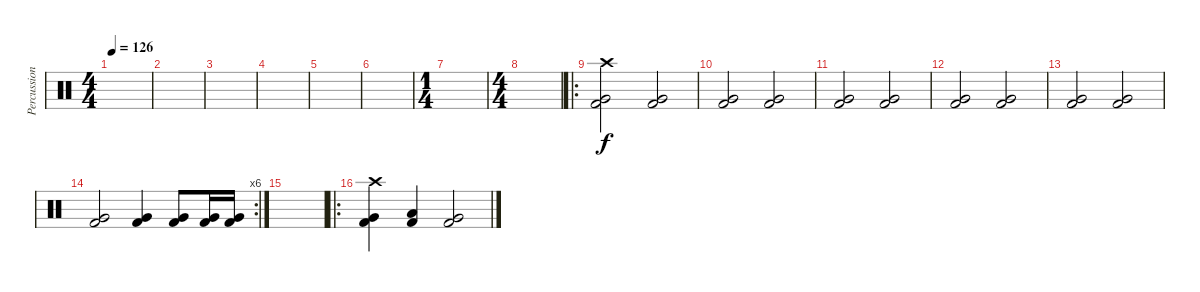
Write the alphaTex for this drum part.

\track ("Percussion" "Percussion") {instrument percussion}
\staff {score}
\articulation defaults
\ts (4 4)
\tempo 126
\clef neutral
\ks c
|
|
|
|
|
|
\ts (1 4)
|
\ts (4 4)
|
\ro
("Crash high (hit)" "Very Low Tom (hit)" "Kick (hit) 2").2 ("Very Low Tom (hit)" "Kick (hit) 2").2 |
("Very Low Tom (hit)" "Kick (hit) 2").2 ("Very Low Tom (hit)" "Kick (hit) 2").2 |
("Very Low Tom (hit)" "Kick (hit) 2").2 ("Very Low Tom (hit)" "Kick (hit) 2").2 |
("Very Low Tom (hit)" "Kick (hit) 2").2 ("Very Low Tom (hit)" "Kick (hit) 2").2 |
("Very Low Tom (hit)" "Kick (hit) 2").2 ("Very Low Tom (hit)" "Kick (hit) 2").2 |
\rc 6
("Very Low Tom (hit)" "Kick (hit) 2").2 ("Very Low Tom (hit)" "Kick (hit) 2").4 ("Very Low Tom (hit)" "Kick (hit) 2").8 ("Very Low Tom (hit)" "Kick (hit) 2").16 ("Very Low Tom (hit)" "Kick (hit) 2").16 |
|
\ro
("Crash high (hit)" "Very Low Tom (hit)" "Kick (hit) 2").4 ("Low Floor Tom (hit)" "Kick (hit) 2").4 ("Very Low Tom (hit)" "Kick (hit) 2").2
